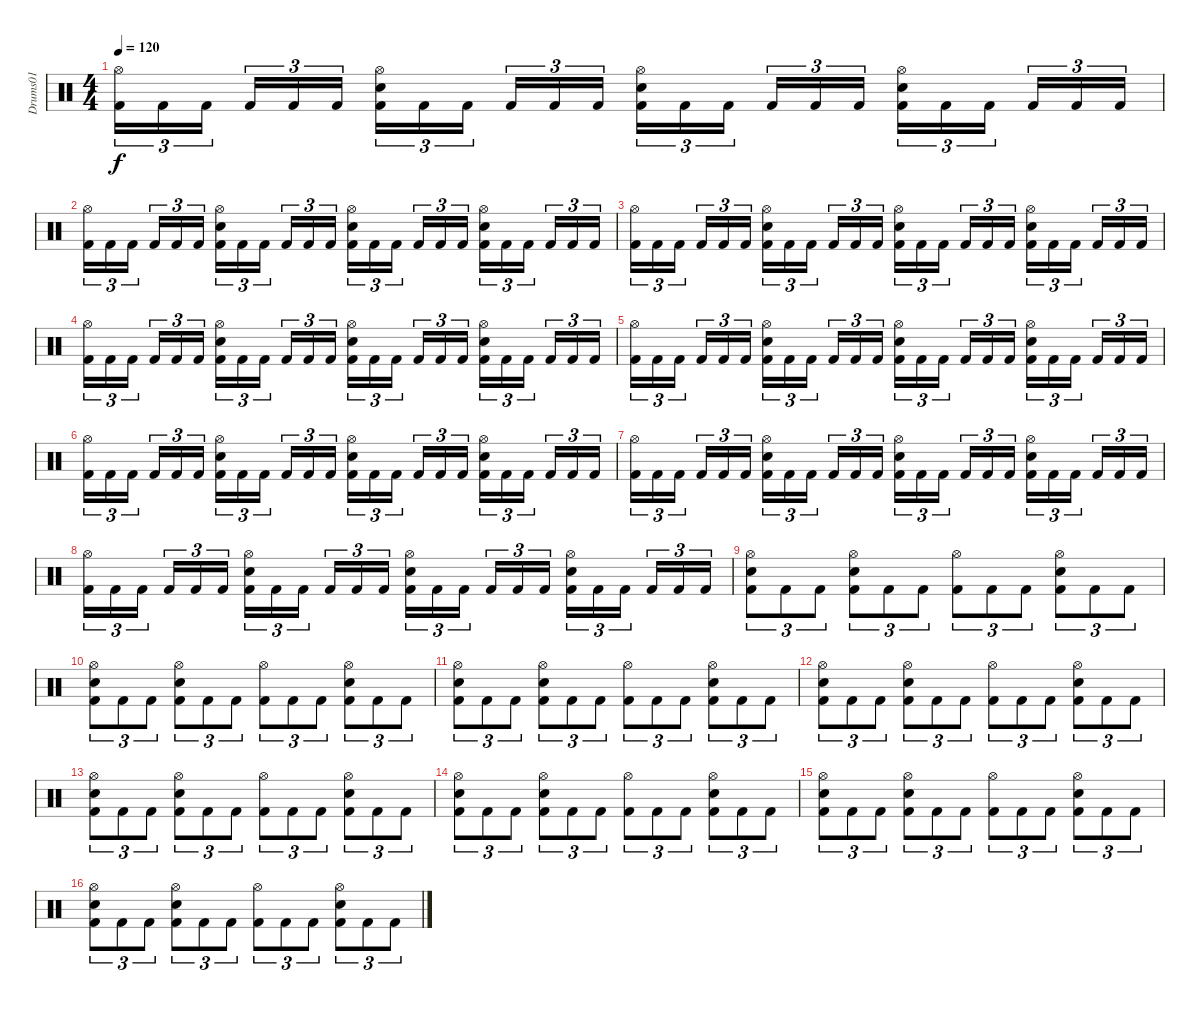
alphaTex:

\track ("Drums01" "Drums01") {instrument percussion}
\staff {score}
\articulation defaults
\ts (4 4)
\tempo 120
\clef neutral
\ks c
("Hi-Hat (open)" "Kick (hit) 2").16{tu (3 2) dy f} "Kick (hit) 2".16{tu (3 2)} "Kick (hit) 2".16{tu (3 2) beam splitsecondary} "Kick (hit) 2".16{tu (3 2)} "Kick (hit) 2".16{tu (3 2)} "Kick (hit) 2".16{tu (3 2)} ("Hi-Hat (open)" "Snare (hit) 2" "Kick (hit) 2").16{tu (3 2)} "Kick (hit) 2".16{tu (3 2)} "Kick (hit) 2".16{tu (3 2) beam splitsecondary} "Kick (hit) 2".16{tu (3 2)} "Kick (hit) 2".16{tu (3 2)} "Kick (hit) 2".16{tu (3 2)} ("Hi-Hat (open)" "Snare (hit) 2" "Kick (hit) 2").16{tu (3 2)} "Kick (hit) 2".16{tu (3 2)} "Kick (hit) 2".16{tu (3 2) beam splitsecondary} "Kick (hit) 2".16{tu (3 2)} "Kick (hit) 2".16{tu (3 2)} "Kick (hit) 2".16{tu (3 2)} ("Hi-Hat (open)" "Snare (hit) 2" "Kick (hit) 2").16{tu (3 2)} "Kick (hit) 2".16{tu (3 2)} "Kick (hit) 2".16{tu (3 2) beam splitsecondary} "Kick (hit) 2".16{tu (3 2)} "Kick (hit) 2".16{tu (3 2)} "Kick (hit) 2".16{tu (3 2)} |
("Hi-Hat (open)" "Kick (hit) 2").16{tu (3 2)} "Kick (hit) 2".16{tu (3 2)} "Kick (hit) 2".16{tu (3 2) beam splitsecondary} "Kick (hit) 2".16{tu (3 2)} "Kick (hit) 2".16{tu (3 2)} "Kick (hit) 2".16{tu (3 2)} ("Hi-Hat (open)" "Snare (hit) 2" "Kick (hit) 2").16{tu (3 2)} "Kick (hit) 2".16{tu (3 2)} "Kick (hit) 2".16{tu (3 2) beam splitsecondary} "Kick (hit) 2".16{tu (3 2)} "Kick (hit) 2".16{tu (3 2)} "Kick (hit) 2".16{tu (3 2)} ("Hi-Hat (open)" "Snare (hit) 2" "Kick (hit) 2").16{tu (3 2)} "Kick (hit) 2".16{tu (3 2)} "Kick (hit) 2".16{tu (3 2) beam splitsecondary} "Kick (hit) 2".16{tu (3 2)} "Kick (hit) 2".16{tu (3 2)} "Kick (hit) 2".16{tu (3 2)} ("Hi-Hat (open)" "Snare (hit) 2" "Kick (hit) 2").16{tu (3 2)} "Kick (hit) 2".16{tu (3 2)} "Kick (hit) 2".16{tu (3 2) beam splitsecondary} "Kick (hit) 2".16{tu (3 2)} "Kick (hit) 2".16{tu (3 2)} "Kick (hit) 2".16{tu (3 2)} |
("Hi-Hat (open)" "Kick (hit) 2").16{tu (3 2)} "Kick (hit) 2".16{tu (3 2)} "Kick (hit) 2".16{tu (3 2) beam splitsecondary} "Kick (hit) 2".16{tu (3 2)} "Kick (hit) 2".16{tu (3 2)} "Kick (hit) 2".16{tu (3 2)} ("Hi-Hat (open)" "Snare (hit) 2" "Kick (hit) 2").16{tu (3 2)} "Kick (hit) 2".16{tu (3 2)} "Kick (hit) 2".16{tu (3 2) beam splitsecondary} "Kick (hit) 2".16{tu (3 2)} "Kick (hit) 2".16{tu (3 2)} "Kick (hit) 2".16{tu (3 2)} ("Hi-Hat (open)" "Snare (hit) 2" "Kick (hit) 2").16{tu (3 2)} "Kick (hit) 2".16{tu (3 2)} "Kick (hit) 2".16{tu (3 2) beam splitsecondary} "Kick (hit) 2".16{tu (3 2)} "Kick (hit) 2".16{tu (3 2)} "Kick (hit) 2".16{tu (3 2)} ("Hi-Hat (open)" "Snare (hit) 2" "Kick (hit) 2").16{tu (3 2)} "Kick (hit) 2".16{tu (3 2)} "Kick (hit) 2".16{tu (3 2) beam splitsecondary} "Kick (hit) 2".16{tu (3 2)} "Kick (hit) 2".16{tu (3 2)} "Kick (hit) 2".16{tu (3 2)} |
("Hi-Hat (open)" "Kick (hit) 2").16{tu (3 2)} "Kick (hit) 2".16{tu (3 2)} "Kick (hit) 2".16{tu (3 2) beam splitsecondary} "Kick (hit) 2".16{tu (3 2)} "Kick (hit) 2".16{tu (3 2)} "Kick (hit) 2".16{tu (3 2)} ("Hi-Hat (open)" "Snare (hit) 2" "Kick (hit) 2").16{tu (3 2)} "Kick (hit) 2".16{tu (3 2)} "Kick (hit) 2".16{tu (3 2) beam splitsecondary} "Kick (hit) 2".16{tu (3 2)} "Kick (hit) 2".16{tu (3 2)} "Kick (hit) 2".16{tu (3 2)} ("Hi-Hat (open)" "Snare (hit) 2" "Kick (hit) 2").16{tu (3 2)} "Kick (hit) 2".16{tu (3 2)} "Kick (hit) 2".16{tu (3 2) beam splitsecondary} "Kick (hit) 2".16{tu (3 2)} "Kick (hit) 2".16{tu (3 2)} "Kick (hit) 2".16{tu (3 2)} ("Hi-Hat (open)" "Snare (hit) 2" "Kick (hit) 2").16{tu (3 2)} "Kick (hit) 2".16{tu (3 2)} "Kick (hit) 2".16{tu (3 2) beam splitsecondary} "Kick (hit) 2".16{tu (3 2)} "Kick (hit) 2".16{tu (3 2)} "Kick (hit) 2".16{tu (3 2)} |
("Hi-Hat (open)" "Kick (hit) 2").16{tu (3 2)} "Kick (hit) 2".16{tu (3 2)} "Kick (hit) 2".16{tu (3 2) beam splitsecondary} "Kick (hit) 2".16{tu (3 2)} "Kick (hit) 2".16{tu (3 2)} "Kick (hit) 2".16{tu (3 2)} ("Hi-Hat (open)" "Snare (hit) 2" "Kick (hit) 2").16{tu (3 2)} "Kick (hit) 2".16{tu (3 2)} "Kick (hit) 2".16{tu (3 2) beam splitsecondary} "Kick (hit) 2".16{tu (3 2)} "Kick (hit) 2".16{tu (3 2)} "Kick (hit) 2".16{tu (3 2)} ("Hi-Hat (open)" "Snare (hit) 2" "Kick (hit) 2").16{tu (3 2)} "Kick (hit) 2".16{tu (3 2)} "Kick (hit) 2".16{tu (3 2) beam splitsecondary} "Kick (hit) 2".16{tu (3 2)} "Kick (hit) 2".16{tu (3 2)} "Kick (hit) 2".16{tu (3 2)} ("Hi-Hat (open)" "Snare (hit) 2" "Kick (hit) 2").16{tu (3 2)} "Kick (hit) 2".16{tu (3 2)} "Kick (hit) 2".16{tu (3 2) beam splitsecondary} "Kick (hit) 2".16{tu (3 2)} "Kick (hit) 2".16{tu (3 2)} "Kick (hit) 2".16{tu (3 2)} |
("Hi-Hat (open)" "Kick (hit) 2").16{tu (3 2)} "Kick (hit) 2".16{tu (3 2)} "Kick (hit) 2".16{tu (3 2) beam splitsecondary} "Kick (hit) 2".16{tu (3 2)} "Kick (hit) 2".16{tu (3 2)} "Kick (hit) 2".16{tu (3 2)} ("Hi-Hat (open)" "Snare (hit) 2" "Kick (hit) 2").16{tu (3 2)} "Kick (hit) 2".16{tu (3 2)} "Kick (hit) 2".16{tu (3 2) beam splitsecondary} "Kick (hit) 2".16{tu (3 2)} "Kick (hit) 2".16{tu (3 2)} "Kick (hit) 2".16{tu (3 2)} ("Hi-Hat (open)" "Snare (hit) 2" "Kick (hit) 2").16{tu (3 2)} "Kick (hit) 2".16{tu (3 2)} "Kick (hit) 2".16{tu (3 2) beam splitsecondary} "Kick (hit) 2".16{tu (3 2)} "Kick (hit) 2".16{tu (3 2)} "Kick (hit) 2".16{tu (3 2)} ("Hi-Hat (open)" "Snare (hit) 2" "Kick (hit) 2").16{tu (3 2)} "Kick (hit) 2".16{tu (3 2)} "Kick (hit) 2".16{tu (3 2) beam splitsecondary} "Kick (hit) 2".16{tu (3 2)} "Kick (hit) 2".16{tu (3 2)} "Kick (hit) 2".16{tu (3 2)} |
("Hi-Hat (open)" "Kick (hit) 2").16{tu (3 2)} "Kick (hit) 2".16{tu (3 2)} "Kick (hit) 2".16{tu (3 2) beam splitsecondary} "Kick (hit) 2".16{tu (3 2)} "Kick (hit) 2".16{tu (3 2)} "Kick (hit) 2".16{tu (3 2)} ("Hi-Hat (open)" "Snare (hit) 2" "Kick (hit) 2").16{tu (3 2)} "Kick (hit) 2".16{tu (3 2)} "Kick (hit) 2".16{tu (3 2) beam splitsecondary} "Kick (hit) 2".16{tu (3 2)} "Kick (hit) 2".16{tu (3 2)} "Kick (hit) 2".16{tu (3 2)} ("Hi-Hat (open)" "Snare (hit) 2" "Kick (hit) 2").16{tu (3 2)} "Kick (hit) 2".16{tu (3 2)} "Kick (hit) 2".16{tu (3 2) beam splitsecondary} "Kick (hit) 2".16{tu (3 2)} "Kick (hit) 2".16{tu (3 2)} "Kick (hit) 2".16{tu (3 2)} ("Hi-Hat (open)" "Snare (hit) 2" "Kick (hit) 2").16{tu (3 2)} "Kick (hit) 2".16{tu (3 2)} "Kick (hit) 2".16{tu (3 2) beam splitsecondary} "Kick (hit) 2".16{tu (3 2)} "Kick (hit) 2".16{tu (3 2)} "Kick (hit) 2".16{tu (3 2)} |
("Hi-Hat (open)" "Kick (hit) 2").16{tu (3 2)} "Kick (hit) 2".16{tu (3 2)} "Kick (hit) 2".16{tu (3 2) beam splitsecondary} "Kick (hit) 2".16{tu (3 2)} "Kick (hit) 2".16{tu (3 2)} "Kick (hit) 2".16{tu (3 2)} ("Hi-Hat (open)" "Snare (hit) 2" "Kick (hit) 2").16{tu (3 2)} "Kick (hit) 2".16{tu (3 2)} "Kick (hit) 2".16{tu (3 2) beam splitsecondary} "Kick (hit) 2".16{tu (3 2)} "Kick (hit) 2".16{tu (3 2)} "Kick (hit) 2".16{tu (3 2)} ("Hi-Hat (open)" "Snare (hit) 2" "Kick (hit) 2").16{tu (3 2)} "Kick (hit) 2".16{tu (3 2)} "Kick (hit) 2".16{tu (3 2) beam splitsecondary} "Kick (hit) 2".16{tu (3 2)} "Kick (hit) 2".16{tu (3 2)} "Kick (hit) 2".16{tu (3 2)} ("Hi-Hat (open)" "Snare (hit) 2" "Kick (hit) 2").16{tu (3 2)} "Kick (hit) 2".16{tu (3 2)} "Kick (hit) 2".16{tu (3 2) beam splitsecondary} "Kick (hit) 2".16{tu (3 2)} "Kick (hit) 2".16{tu (3 2)} "Kick (hit) 2".16{tu (3 2)} |
("Hi-Hat (open)" "Snare (hit) 2" "Kick (hit) 2").8{tu (3 2)} "Kick (hit) 2".8{tu (3 2)} "Kick (hit) 2".8{tu (3 2)} ("Hi-Hat (open)" "Snare (hit) 2" "Kick (hit) 2").8{tu (3 2)} "Kick (hit) 2".8{tu (3 2)} "Kick (hit) 2".8{tu (3 2)} ("Hi-Hat (open)" "Kick (hit) 2").8{tu (3 2)} "Kick (hit) 2".8{tu (3 2)} "Kick (hit) 2".8{tu (3 2)} ("Hi-Hat (open)" "Snare (hit) 2" "Kick (hit) 2").8{tu (3 2)} "Kick (hit) 2".8{tu (3 2)} "Kick (hit) 2".8{tu (3 2)} |
("Hi-Hat (open)" "Snare (hit) 2" "Kick (hit) 2").8{tu (3 2)} "Kick (hit) 2".8{tu (3 2)} "Kick (hit) 2".8{tu (3 2)} ("Hi-Hat (open)" "Snare (hit) 2" "Kick (hit) 2").8{tu (3 2)} "Kick (hit) 2".8{tu (3 2)} "Kick (hit) 2".8{tu (3 2)} ("Hi-Hat (open)" "Kick (hit) 2").8{tu (3 2)} "Kick (hit) 2".8{tu (3 2)} "Kick (hit) 2".8{tu (3 2)} ("Hi-Hat (open)" "Snare (hit) 2" "Kick (hit) 2").8{tu (3 2)} "Kick (hit) 2".8{tu (3 2)} "Kick (hit) 2".8{tu (3 2)} |
("Hi-Hat (open)" "Snare (hit) 2" "Kick (hit) 2").8{tu (3 2)} "Kick (hit) 2".8{tu (3 2)} "Kick (hit) 2".8{tu (3 2)} ("Hi-Hat (open)" "Snare (hit) 2" "Kick (hit) 2").8{tu (3 2)} "Kick (hit) 2".8{tu (3 2)} "Kick (hit) 2".8{tu (3 2)} ("Hi-Hat (open)" "Kick (hit) 2").8{tu (3 2)} "Kick (hit) 2".8{tu (3 2)} "Kick (hit) 2".8{tu (3 2)} ("Hi-Hat (open)" "Snare (hit) 2" "Kick (hit) 2").8{tu (3 2)} "Kick (hit) 2".8{tu (3 2)} "Kick (hit) 2".8{tu (3 2)} |
("Hi-Hat (open)" "Snare (hit) 2" "Kick (hit) 2").8{tu (3 2)} "Kick (hit) 2".8{tu (3 2)} "Kick (hit) 2".8{tu (3 2)} ("Hi-Hat (open)" "Snare (hit) 2" "Kick (hit) 2").8{tu (3 2)} "Kick (hit) 2".8{tu (3 2)} "Kick (hit) 2".8{tu (3 2)} ("Hi-Hat (open)" "Kick (hit) 2").8{tu (3 2)} "Kick (hit) 2".8{tu (3 2)} "Kick (hit) 2".8{tu (3 2)} ("Hi-Hat (open)" "Snare (hit) 2" "Kick (hit) 2").8{tu (3 2)} "Kick (hit) 2".8{tu (3 2)} "Kick (hit) 2".8{tu (3 2)} |
("Hi-Hat (open)" "Snare (hit) 2" "Kick (hit) 2").8{tu (3 2)} "Kick (hit) 2".8{tu (3 2)} "Kick (hit) 2".8{tu (3 2)} ("Hi-Hat (open)" "Snare (hit) 2" "Kick (hit) 2").8{tu (3 2)} "Kick (hit) 2".8{tu (3 2)} "Kick (hit) 2".8{tu (3 2)} ("Hi-Hat (open)" "Kick (hit) 2").8{tu (3 2)} "Kick (hit) 2".8{tu (3 2)} "Kick (hit) 2".8{tu (3 2)} ("Hi-Hat (open)" "Snare (hit) 2" "Kick (hit) 2").8{tu (3 2)} "Kick (hit) 2".8{tu (3 2)} "Kick (hit) 2".8{tu (3 2)} |
("Hi-Hat (open)" "Snare (hit) 2" "Kick (hit) 2").8{tu (3 2)} "Kick (hit) 2".8{tu (3 2)} "Kick (hit) 2".8{tu (3 2)} ("Hi-Hat (open)" "Snare (hit) 2" "Kick (hit) 2").8{tu (3 2)} "Kick (hit) 2".8{tu (3 2)} "Kick (hit) 2".8{tu (3 2)} ("Hi-Hat (open)" "Kick (hit) 2").8{tu (3 2)} "Kick (hit) 2".8{tu (3 2)} "Kick (hit) 2".8{tu (3 2)} ("Hi-Hat (open)" "Snare (hit) 2" "Kick (hit) 2").8{tu (3 2)} "Kick (hit) 2".8{tu (3 2)} "Kick (hit) 2".8{tu (3 2)} |
("Hi-Hat (open)" "Snare (hit) 2" "Kick (hit) 2").8{tu (3 2)} "Kick (hit) 2".8{tu (3 2)} "Kick (hit) 2".8{tu (3 2)} ("Hi-Hat (open)" "Snare (hit) 2" "Kick (hit) 2").8{tu (3 2)} "Kick (hit) 2".8{tu (3 2)} "Kick (hit) 2".8{tu (3 2)} ("Hi-Hat (open)" "Kick (hit) 2").8{tu (3 2)} "Kick (hit) 2".8{tu (3 2)} "Kick (hit) 2".8{tu (3 2)} ("Hi-Hat (open)" "Snare (hit) 2" "Kick (hit) 2").8{tu (3 2)} "Kick (hit) 2".8{tu (3 2)} "Kick (hit) 2".8{tu (3 2)} |
("Hi-Hat (open)" "Snare (hit) 2" "Kick (hit) 2").8{tu (3 2)} "Kick (hit) 2".8{tu (3 2)} "Kick (hit) 2".8{tu (3 2)} ("Hi-Hat (open)" "Snare (hit) 2" "Kick (hit) 2").8{tu (3 2)} "Kick (hit) 2".8{tu (3 2)} "Kick (hit) 2".8{tu (3 2)} ("Hi-Hat (open)" "Kick (hit) 2").8{tu (3 2)} "Kick (hit) 2".8{tu (3 2)} "Kick (hit) 2".8{tu (3 2)} ("Hi-Hat (open)" "Snare (hit) 2" "Kick (hit) 2").8{tu (3 2)} "Kick (hit) 2".8{tu (3 2)} "Kick (hit) 2".8{tu (3 2)}
